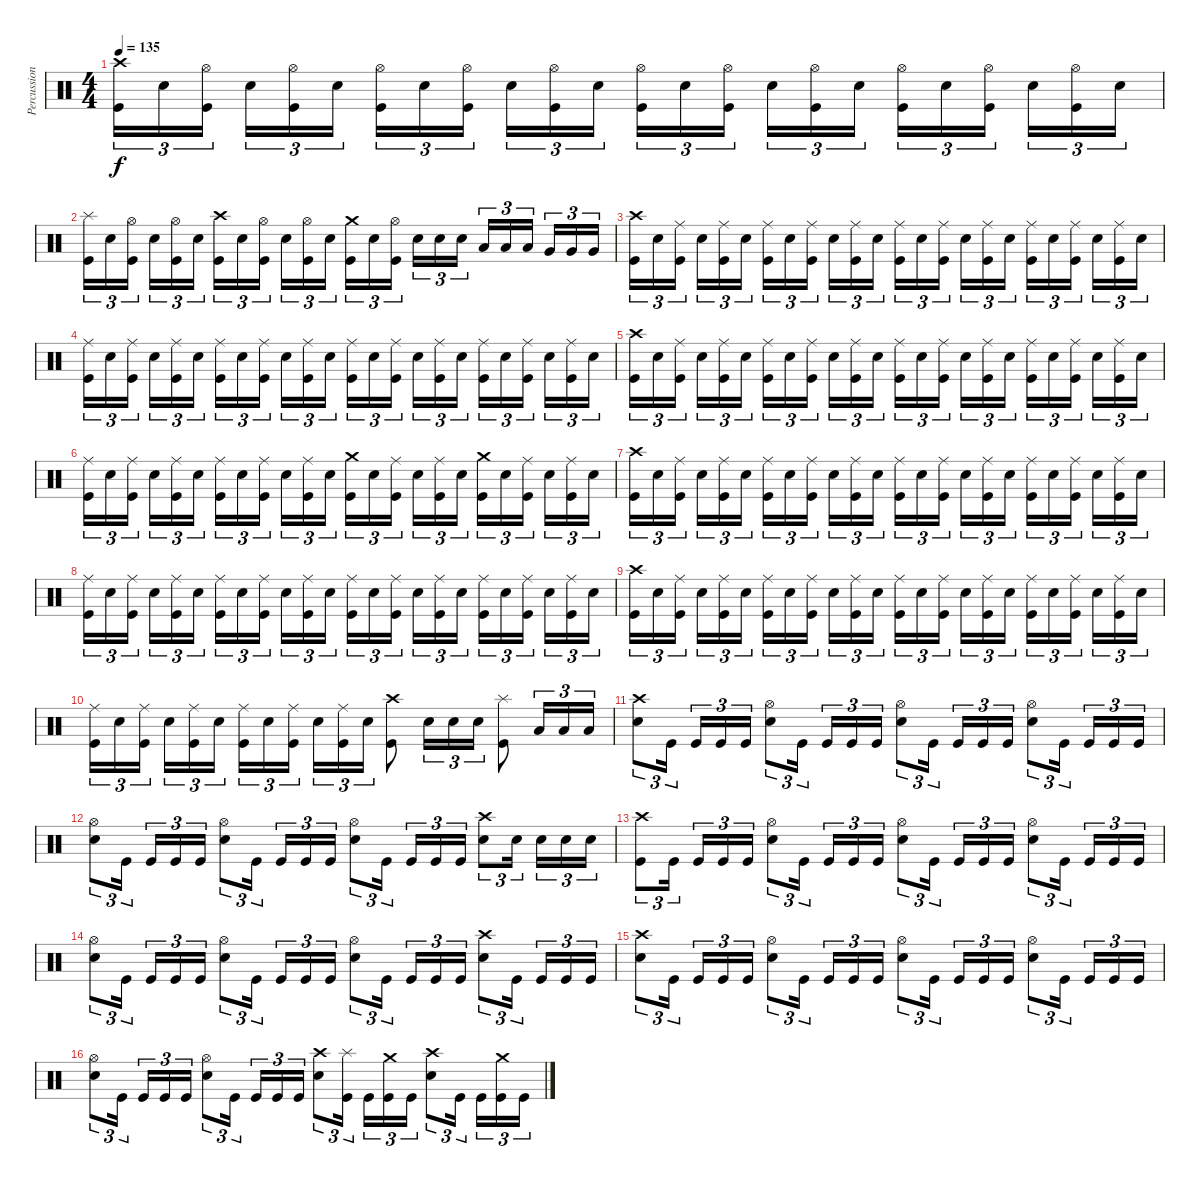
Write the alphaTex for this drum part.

\track ("Percussions" "Percussion") {instrument percussion}
\staff {score}
\articulation defaults
\ts (4 4)
\tempo 135
\clef neutral
\ks c
("Crash high (hit)" "Kick (hit)").16{tu (3 2) dy f} "Electric Snare (hit)".16{tu (3 2)} ("Hi-Hat (open)" "Kick (hit)").16{tu (3 2) beam splitsecondary} "Electric Snare (hit)".16{tu (3 2)} ("Hi-Hat (open)" "Kick (hit)").16{tu (3 2)} "Electric Snare (hit)".16{tu (3 2)} ("Hi-Hat (open)" "Kick (hit)").16{tu (3 2)} "Electric Snare (hit)".16{tu (3 2)} ("Hi-Hat (open)" "Kick (hit)").16{tu (3 2) beam splitsecondary} "Electric Snare (hit)".16{tu (3 2)} ("Hi-Hat (open)" "Kick (hit)").16{tu (3 2)} "Electric Snare (hit)".16{tu (3 2)} ("Hi-Hat (open)" "Kick (hit)").16{tu (3 2)} "Electric Snare (hit)".16{tu (3 2)} ("Hi-Hat (open)" "Kick (hit)").16{tu (3 2) beam splitsecondary} "Electric Snare (hit)".16{tu (3 2)} ("Hi-Hat (open)" "Kick (hit)").16{tu (3 2)} "Electric Snare (hit)".16{tu (3 2)} ("Hi-Hat (open)" "Kick (hit)").16{tu (3 2)} "Electric Snare (hit)".16{tu (3 2)} ("Hi-Hat (open)" "Kick (hit)").16{tu (3 2) beam splitsecondary} "Electric Snare (hit)".16{tu (3 2)} ("Hi-Hat (open)" "Kick (hit)").16{tu (3 2)} "Electric Snare (hit)".16{tu (3 2)} |
("Splash (hit)" "Kick (hit)").16{tu (3 2)} "Electric Snare (hit)".16{tu (3 2)} ("Hi-Hat (open)" "Kick (hit)").16{tu (3 2) beam splitsecondary} "Electric Snare (hit)".16{tu (3 2)} ("Hi-Hat (open)" "Kick (hit)").16{tu (3 2)} "Electric Snare (hit)".16{tu (3 2)} ("Crash high (hit)" "Kick (hit)").16{tu (3 2)} "Electric Snare (hit)".16{tu (3 2)} ("Hi-Hat (open)" "Kick (hit)").16{tu (3 2) beam splitsecondary} "Electric Snare (hit)".16{tu (3 2)} ("Hi-Hat (open)" "Kick (hit)").16{tu (3 2)} "Electric Snare (hit)".16{tu (3 2)} ("Crash medium (hit)" "Kick (hit)").16{tu (3 2)} "Electric Snare (hit)".16{tu (3 2)} ("Hi-Hat (open)" "Kick (hit)").16{tu (3 2) beam splitsecondary} "Electric Snare (hit)".16{tu (3 2)} "Electric Snare (hit)".16{tu (3 2)} "Electric Snare (hit)".16{tu (3 2)} "Low Tom (hit)".16{tu (3 2)} "Low Tom (hit)".16{tu (3 2)} "Low Tom (hit)".16{tu (3 2) beam splitsecondary} "Very Low Tom (hit)".16{tu (3 2)} "Very Low Tom (hit)".16{tu (3 2)} "Very Low Tom (hit)".16{tu (3 2)} |
("Crash high (hit)" "Kick (hit)").16{tu (3 2)} "Electric Snare (hit)".16{tu (3 2)} ("Ride (middle)" "Kick (hit)").16{tu (3 2) beam splitsecondary} "Electric Snare (hit)".16{tu (3 2)} ("Ride (middle)" "Kick (hit)").16{tu (3 2)} "Electric Snare (hit)".16{tu (3 2)} ("Ride (middle)" "Kick (hit)").16{tu (3 2)} "Electric Snare (hit)".16{tu (3 2)} ("Ride (middle)" "Kick (hit)").16{tu (3 2) beam splitsecondary} "Electric Snare (hit)".16{tu (3 2)} ("Ride (middle)" "Kick (hit)").16{tu (3 2)} "Electric Snare (hit)".16{tu (3 2)} ("Ride (middle)" "Kick (hit)").16{tu (3 2)} "Electric Snare (hit)".16{tu (3 2)} ("Ride (middle)" "Kick (hit)").16{tu (3 2) beam splitsecondary} "Electric Snare (hit)".16{tu (3 2)} ("Ride (middle)" "Kick (hit)").16{tu (3 2)} "Electric Snare (hit)".16{tu (3 2)} ("Ride (middle)" "Kick (hit)").16{tu (3 2)} "Electric Snare (hit)".16{tu (3 2)} ("Ride (middle)" "Kick (hit)").16{tu (3 2) beam splitsecondary} "Electric Snare (hit)".16{tu (3 2)} ("Ride (middle)" "Kick (hit)").16{tu (3 2)} "Electric Snare (hit)".16{tu (3 2)} |
("Ride (middle)" "Kick (hit)").16{tu (3 2)} "Electric Snare (hit)".16{tu (3 2)} ("Ride (middle)" "Kick (hit)").16{tu (3 2) beam splitsecondary} "Electric Snare (hit)".16{tu (3 2)} ("Ride (middle)" "Kick (hit)").16{tu (3 2)} "Electric Snare (hit)".16{tu (3 2)} ("Ride (middle)" "Kick (hit)").16{tu (3 2)} "Electric Snare (hit)".16{tu (3 2)} ("Ride (middle)" "Kick (hit)").16{tu (3 2) beam splitsecondary} "Electric Snare (hit)".16{tu (3 2)} ("Ride (middle)" "Kick (hit)").16{tu (3 2)} "Electric Snare (hit)".16{tu (3 2)} ("Ride (middle)" "Kick (hit)").16{tu (3 2)} "Electric Snare (hit)".16{tu (3 2)} ("Ride (middle)" "Kick (hit)").16{tu (3 2) beam splitsecondary} "Electric Snare (hit)".16{tu (3 2)} ("Ride (middle)" "Kick (hit)").16{tu (3 2)} "Electric Snare (hit)".16{tu (3 2)} ("Ride (middle)" "Kick (hit)").16{tu (3 2)} "Electric Snare (hit)".16{tu (3 2)} ("Ride (middle)" "Kick (hit)").16{tu (3 2) beam splitsecondary} "Electric Snare (hit)".16{tu (3 2)} ("Ride (middle)" "Kick (hit)").16{tu (3 2)} "Electric Snare (hit)".16{tu (3 2)} |
("Crash high (hit)" "Kick (hit)").16{tu (3 2)} "Electric Snare (hit)".16{tu (3 2)} ("Ride (middle)" "Kick (hit)").16{tu (3 2) beam splitsecondary} "Electric Snare (hit)".16{tu (3 2)} ("Ride (middle)" "Kick (hit)").16{tu (3 2)} "Electric Snare (hit)".16{tu (3 2)} ("Ride (middle)" "Kick (hit)").16{tu (3 2)} "Electric Snare (hit)".16{tu (3 2)} ("Ride (middle)" "Kick (hit)").16{tu (3 2) beam splitsecondary} "Electric Snare (hit)".16{tu (3 2)} ("Ride (middle)" "Kick (hit)").16{tu (3 2)} "Electric Snare (hit)".16{tu (3 2)} ("Ride (middle)" "Kick (hit)").16{tu (3 2)} "Electric Snare (hit)".16{tu (3 2)} ("Ride (middle)" "Kick (hit)").16{tu (3 2) beam splitsecondary} "Electric Snare (hit)".16{tu (3 2)} ("Ride (middle)" "Kick (hit)").16{tu (3 2)} "Electric Snare (hit)".16{tu (3 2)} ("Ride (middle)" "Kick (hit)").16{tu (3 2)} "Electric Snare (hit)".16{tu (3 2)} ("Ride (middle)" "Kick (hit)").16{tu (3 2) beam splitsecondary} "Electric Snare (hit)".16{tu (3 2)} ("Ride (middle)" "Kick (hit)").16{tu (3 2)} "Electric Snare (hit)".16{tu (3 2)} |
("Ride (middle)" "Kick (hit)").16{tu (3 2)} "Electric Snare (hit)".16{tu (3 2)} ("Ride (middle)" "Kick (hit)").16{tu (3 2) beam splitsecondary} "Electric Snare (hit)".16{tu (3 2)} ("Ride (middle)" "Kick (hit)").16{tu (3 2)} "Electric Snare (hit)".16{tu (3 2)} ("Ride (middle)" "Kick (hit)").16{tu (3 2)} "Electric Snare (hit)".16{tu (3 2)} ("Ride (middle)" "Kick (hit)").16{tu (3 2) beam splitsecondary} "Electric Snare (hit)".16{tu (3 2)} ("Ride (middle)" "Kick (hit)").16{tu (3 2)} "Electric Snare (hit)".16{tu (3 2)} ("Crash medium (hit)" "Kick (hit)").16{tu (3 2)} "Electric Snare (hit)".16{tu (3 2)} ("Ride (middle)" "Kick (hit)").16{tu (3 2) beam splitsecondary} "Electric Snare (hit)".16{tu (3 2)} ("Ride (middle)" "Kick (hit)").16{tu (3 2)} "Electric Snare (hit)".16{tu (3 2)} ("Crash medium (hit)" "Kick (hit)").16{tu (3 2)} "Electric Snare (hit)".16{tu (3 2)} ("Ride (middle)" "Kick (hit)").16{tu (3 2) beam splitsecondary} "Electric Snare (hit)".16{tu (3 2)} ("Ride (middle)" "Kick (hit)").16{tu (3 2)} "Electric Snare (hit)".16{tu (3 2)} |
("Crash high (hit)" "Kick (hit)").16{tu (3 2)} "Electric Snare (hit)".16{tu (3 2)} ("Ride (middle)" "Kick (hit)").16{tu (3 2) beam splitsecondary} "Electric Snare (hit)".16{tu (3 2)} ("Ride (middle)" "Kick (hit)").16{tu (3 2)} "Electric Snare (hit)".16{tu (3 2)} ("Ride (middle)" "Kick (hit)").16{tu (3 2)} "Electric Snare (hit)".16{tu (3 2)} ("Ride (middle)" "Kick (hit)").16{tu (3 2) beam splitsecondary} "Electric Snare (hit)".16{tu (3 2)} ("Ride (middle)" "Kick (hit)").16{tu (3 2)} "Electric Snare (hit)".16{tu (3 2)} ("Ride (middle)" "Kick (hit)").16{tu (3 2)} "Electric Snare (hit)".16{tu (3 2)} ("Ride (middle)" "Kick (hit)").16{tu (3 2) beam splitsecondary} "Electric Snare (hit)".16{tu (3 2)} ("Ride (middle)" "Kick (hit)").16{tu (3 2)} "Electric Snare (hit)".16{tu (3 2)} ("Ride (middle)" "Kick (hit)").16{tu (3 2)} "Electric Snare (hit)".16{tu (3 2)} ("Ride (middle)" "Kick (hit)").16{tu (3 2) beam splitsecondary} "Electric Snare (hit)".16{tu (3 2)} ("Ride (middle)" "Kick (hit)").16{tu (3 2)} "Electric Snare (hit)".16{tu (3 2)} |
("Ride (middle)" "Kick (hit)").16{tu (3 2)} "Electric Snare (hit)".16{tu (3 2)} ("Ride (middle)" "Kick (hit)").16{tu (3 2) beam splitsecondary} "Electric Snare (hit)".16{tu (3 2)} ("Ride (middle)" "Kick (hit)").16{tu (3 2)} "Electric Snare (hit)".16{tu (3 2)} ("Ride (middle)" "Kick (hit)").16{tu (3 2)} "Electric Snare (hit)".16{tu (3 2)} ("Ride (middle)" "Kick (hit)").16{tu (3 2) beam splitsecondary} "Electric Snare (hit)".16{tu (3 2)} ("Ride (middle)" "Kick (hit)").16{tu (3 2)} "Electric Snare (hit)".16{tu (3 2)} ("Ride (middle)" "Kick (hit)").16{tu (3 2)} "Electric Snare (hit)".16{tu (3 2)} ("Ride (middle)" "Kick (hit)").16{tu (3 2) beam splitsecondary} "Electric Snare (hit)".16{tu (3 2)} ("Ride (middle)" "Kick (hit)").16{tu (3 2)} "Electric Snare (hit)".16{tu (3 2)} ("Ride (middle)" "Kick (hit)").16{tu (3 2)} "Electric Snare (hit)".16{tu (3 2)} ("Ride (middle)" "Kick (hit)").16{tu (3 2) beam splitsecondary} "Electric Snare (hit)".16{tu (3 2)} ("Ride (middle)" "Kick (hit)").16{tu (3 2)} "Electric Snare (hit)".16{tu (3 2)} |
("Crash high (hit)" "Kick (hit)").16{tu (3 2)} "Electric Snare (hit)".16{tu (3 2)} ("Ride (middle)" "Kick (hit)").16{tu (3 2) beam splitsecondary} "Electric Snare (hit)".16{tu (3 2)} ("Ride (middle)" "Kick (hit)").16{tu (3 2)} "Electric Snare (hit)".16{tu (3 2)} ("Ride (middle)" "Kick (hit)").16{tu (3 2)} "Electric Snare (hit)".16{tu (3 2)} ("Ride (middle)" "Kick (hit)").16{tu (3 2) beam splitsecondary} "Electric Snare (hit)".16{tu (3 2)} ("Ride (middle)" "Kick (hit)").16{tu (3 2)} "Electric Snare (hit)".16{tu (3 2)} ("Ride (middle)" "Kick (hit)").16{tu (3 2)} "Electric Snare (hit)".16{tu (3 2)} ("Ride (middle)" "Kick (hit)").16{tu (3 2) beam splitsecondary} "Electric Snare (hit)".16{tu (3 2)} ("Ride (middle)" "Kick (hit)").16{tu (3 2)} "Electric Snare (hit)".16{tu (3 2)} ("Ride (middle)" "Kick (hit)").16{tu (3 2)} "Electric Snare (hit)".16{tu (3 2)} ("Ride (middle)" "Kick (hit)").16{tu (3 2) beam splitsecondary} "Electric Snare (hit)".16{tu (3 2)} ("Ride (middle)" "Kick (hit)").16{tu (3 2)} "Electric Snare (hit)".16{tu (3 2)} |
("Ride (middle)" "Kick (hit)").16{tu (3 2)} "Electric Snare (hit)".16{tu (3 2)} ("Ride (middle)" "Kick (hit)").16{tu (3 2) beam splitsecondary} "Electric Snare (hit)".16{tu (3 2)} ("Ride (middle)" "Kick (hit)").16{tu (3 2)} "Electric Snare (hit)".16{tu (3 2)} ("Ride (middle)" "Kick (hit)").16{tu (3 2)} "Electric Snare (hit)".16{tu (3 2)} ("Ride (middle)" "Kick (hit)").16{tu (3 2) beam splitsecondary} "Electric Snare (hit)".16{tu (3 2)} ("Ride (middle)" "Kick (hit)").16{tu (3 2)} "Electric Snare (hit)".16{tu (3 2)} ("Crash high (hit)" "Kick (hit)").8 "Electric Snare (hit)".16{tu (3 2)} "Electric Snare (hit)".16{tu (3 2)} "Electric Snare (hit)".16{tu (3 2)} ("Splash (hit)" "Kick (hit)").8 "Low Tom (hit)".16{tu (3 2)} "Low Tom (hit)".16{tu (3 2)} "Low Tom (hit)".16{tu (3 2)} |
("Crash high (hit)" "Electric Snare (hit)").8{tu (3 2)} "Kick (hit)".16{tu (3 2) beam splitsecondary} "Kick (hit)".16{tu (3 2)} "Kick (hit)".16{tu (3 2)} "Kick (hit)".16{tu (3 2)} ("Hi-Hat (open)" "Electric Snare (hit)").8{tu (3 2)} "Kick (hit)".16{tu (3 2) beam splitsecondary} "Kick (hit)".16{tu (3 2)} "Kick (hit)".16{tu (3 2)} "Kick (hit)".16{tu (3 2)} ("Hi-Hat (open)" "Electric Snare (hit)").8{tu (3 2)} "Kick (hit)".16{tu (3 2) beam splitsecondary} "Kick (hit)".16{tu (3 2)} "Kick (hit)".16{tu (3 2)} "Kick (hit)".16{tu (3 2)} ("Hi-Hat (open)" "Electric Snare (hit)").8{tu (3 2)} "Kick (hit)".16{tu (3 2) beam splitsecondary} "Kick (hit)".16{tu (3 2)} "Kick (hit)".16{tu (3 2)} "Kick (hit)".16{tu (3 2)} |
("Hi-Hat (open)" "Electric Snare (hit)").8{tu (3 2)} "Kick (hit)".16{tu (3 2) beam splitsecondary} "Kick (hit)".16{tu (3 2)} "Kick (hit)".16{tu (3 2)} "Kick (hit)".16{tu (3 2)} ("Hi-Hat (open)" "Electric Snare (hit)").8{tu (3 2)} "Kick (hit)".16{tu (3 2) beam splitsecondary} "Kick (hit)".16{tu (3 2)} "Kick (hit)".16{tu (3 2)} "Kick (hit)".16{tu (3 2)} ("Hi-Hat (open)" "Electric Snare (hit)").8{tu (3 2)} "Kick (hit)".16{tu (3 2) beam splitsecondary} "Kick (hit)".16{tu (3 2)} "Kick (hit)".16{tu (3 2)} "Kick (hit)".16{tu (3 2)} ("Crash high (hit)" "Electric Snare (hit)").8{tu (3 2)} "Electric Snare (hit)".16{tu (3 2) beam splitsecondary} "Electric Snare (hit)".16{tu (3 2)} "Electric Snare (hit)".16{tu (3 2)} "Electric Snare (hit)".16{tu (3 2)} |
("Crash high (hit)" "Kick (hit)").8{tu (3 2)} "Kick (hit)".16{tu (3 2) beam splitsecondary} "Kick (hit)".16{tu (3 2)} "Kick (hit)".16{tu (3 2)} "Kick (hit)".16{tu (3 2)} ("Hi-Hat (open)" "Electric Snare (hit)").8{tu (3 2)} "Kick (hit)".16{tu (3 2) beam splitsecondary} "Kick (hit)".16{tu (3 2)} "Kick (hit)".16{tu (3 2)} "Kick (hit)".16{tu (3 2)} ("Hi-Hat (open)" "Electric Snare (hit)").8{tu (3 2)} "Kick (hit)".16{tu (3 2) beam splitsecondary} "Kick (hit)".16{tu (3 2)} "Kick (hit)".16{tu (3 2)} "Kick (hit)".16{tu (3 2)} ("Hi-Hat (open)" "Electric Snare (hit)").8{tu (3 2)} "Kick (hit)".16{tu (3 2) beam splitsecondary} "Kick (hit)".16{tu (3 2)} "Kick (hit)".16{tu (3 2)} "Kick (hit)".16{tu (3 2)} |
("Hi-Hat (open)" "Electric Snare (hit)").8{tu (3 2)} "Kick (hit)".16{tu (3 2) beam splitsecondary} "Kick (hit)".16{tu (3 2)} "Kick (hit)".16{tu (3 2)} "Kick (hit)".16{tu (3 2)} ("Hi-Hat (open)" "Electric Snare (hit)").8{tu (3 2)} "Kick (hit)".16{tu (3 2) beam splitsecondary} "Kick (hit)".16{tu (3 2)} "Kick (hit)".16{tu (3 2)} "Kick (hit)".16{tu (3 2)} ("Hi-Hat (open)" "Electric Snare (hit)").8{tu (3 2)} "Kick (hit)".16{tu (3 2) beam splitsecondary} "Kick (hit)".16{tu (3 2)} "Kick (hit)".16{tu (3 2)} "Kick (hit)".16{tu (3 2)} ("Crash high (hit)" "Electric Snare (hit)").8{tu (3 2)} "Kick (hit)".16{tu (3 2) beam splitsecondary} "Kick (hit)".16{tu (3 2)} "Kick (hit)".16{tu (3 2)} "Kick (hit)".16{tu (3 2)} |
("Crash high (hit)" "Electric Snare (hit)").8{tu (3 2)} "Kick (hit)".16{tu (3 2) beam splitsecondary} "Kick (hit)".16{tu (3 2)} "Kick (hit)".16{tu (3 2)} "Kick (hit)".16{tu (3 2)} ("Hi-Hat (open)" "Electric Snare (hit)").8{tu (3 2)} "Kick (hit)".16{tu (3 2) beam splitsecondary} "Kick (hit)".16{tu (3 2)} "Kick (hit)".16{tu (3 2)} "Kick (hit)".16{tu (3 2)} ("Hi-Hat (open)" "Electric Snare (hit)").8{tu (3 2)} "Kick (hit)".16{tu (3 2) beam splitsecondary} "Kick (hit)".16{tu (3 2)} "Kick (hit)".16{tu (3 2)} "Kick (hit)".16{tu (3 2)} ("Hi-Hat (open)" "Electric Snare (hit)").8{tu (3 2)} "Kick (hit)".16{tu (3 2) beam splitsecondary} "Kick (hit)".16{tu (3 2)} "Kick (hit)".16{tu (3 2)} "Kick (hit)".16{tu (3 2)} |
("Hi-Hat (open)" "Electric Snare (hit)").8{tu (3 2)} "Kick (hit)".16{tu (3 2) beam splitsecondary} "Kick (hit)".16{tu (3 2)} "Kick (hit)".16{tu (3 2)} "Kick (hit)".16{tu (3 2)} ("Hi-Hat (open)" "Electric Snare (hit)").8{tu (3 2)} "Kick (hit)".16{tu (3 2) beam splitsecondary} "Kick (hit)".16{tu (3 2)} "Kick (hit)".16{tu (3 2)} "Kick (hit)".16{tu (3 2)} ("Crash high (hit)" "Electric Snare (hit)").8{tu (3 2)} ("Splash (hit)" "Kick (hit)").16{tu (3 2) beam splitsecondary} "Kick (hit)".16{tu (3 2)} ("Crash medium (hit)" "Kick (hit)").16{tu (3 2)} "Kick (hit)".16{tu (3 2)} ("Crash high (hit)" "Electric Snare (hit)").8{tu (3 2)} "Kick (hit)".16{tu (3 2) beam splitsecondary} "Kick (hit)".16{tu (3 2)} ("Crash medium (hit)" "Kick (hit)").16{tu (3 2)} "Kick (hit)".16{tu (3 2)}
